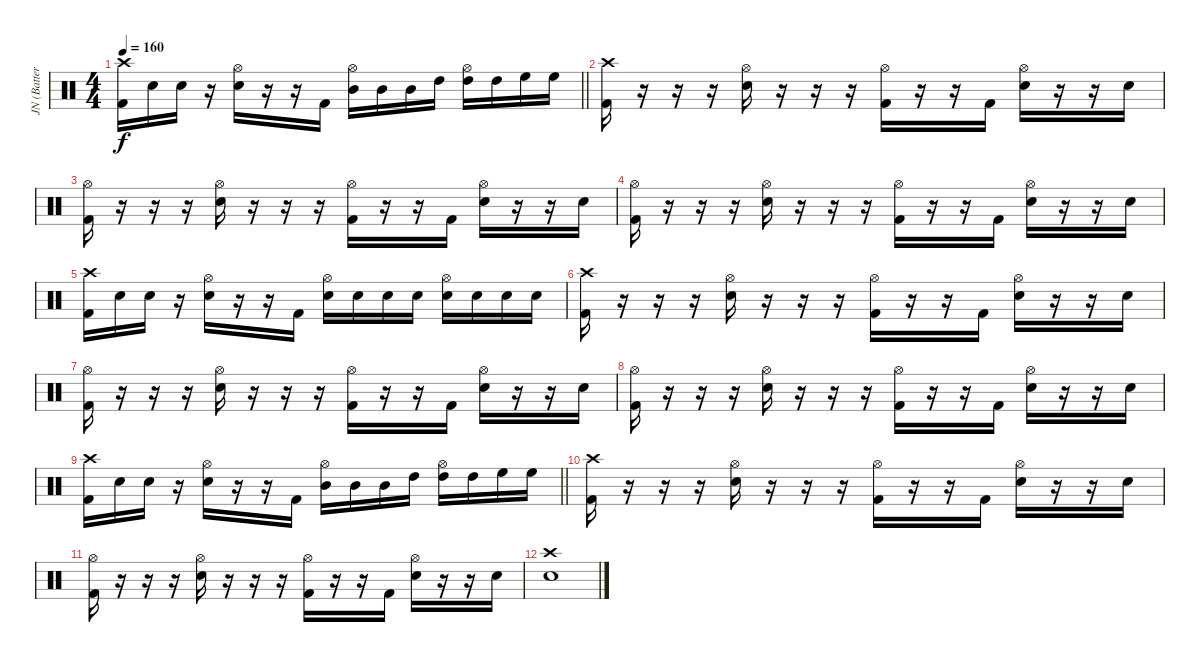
\track ("JN (Batterie)" "JN (Batter") {instrument percussion}
\staff {score}
\articulation defaults
\ts (4 4)
\tempo 160
\clef neutral
\barLineRight lightlight
\ks c
("Crash high (hit)" "Kick (hit) 2").16{dy f} "Electric Snare (hit)".16 "Electric Snare (hit)".16 r.16 ("Hi-Hat (open)" "Electric Snare (hit)").16 r.16 r.16 "Kick (hit) 2".16 ("Hi-Hat (open)" "Mid Tom (hit)").16 "Mid Tom (hit)".16 "Mid Tom (hit)".16 "High Tom (hit)".16 ("Hi-Hat (open)" "High Tom (hit)").16 "High Tom (hit)".16 "High Floor Tom (hit)".16 "High Floor Tom (hit)".16 |
("Crash high (hit)" "Kick (hit) 2").16 r.16 r.16 r.16 ("Hi-Hat (open)" "Electric Snare (hit)").16 r.16 r.16 r.16 ("Hi-Hat (open)" "Kick (hit) 2").16 r.16 r.16 "Kick (hit) 2".16 ("Hi-Hat (open)" "Electric Snare (hit)").16 r.16 r.16 "Electric Snare (hit)".16 |
("Hi-Hat (open)" "Kick (hit) 2").16 r.16 r.16 r.16 ("Hi-Hat (open)" "Electric Snare (hit)").16 r.16 r.16 r.16 ("Hi-Hat (open)" "Kick (hit) 2").16 r.16 r.16 "Kick (hit) 2".16 ("Hi-Hat (open)" "Electric Snare (hit)").16 r.16 r.16 "Electric Snare (hit)".16 |
("Hi-Hat (open)" "Kick (hit) 2").16 r.16 r.16 r.16 ("Hi-Hat (open)" "Electric Snare (hit)").16 r.16 r.16 r.16 ("Hi-Hat (open)" "Kick (hit) 2").16 r.16 r.16 "Kick (hit) 2".16 ("Hi-Hat (open)" "Electric Snare (hit)").16 r.16 r.16 "Electric Snare (hit)".16 |
("Crash high (hit)" "Kick (hit) 2").16 "Electric Snare (hit)".16 "Electric Snare (hit)".16 r.16 ("Hi-Hat (open)" "Electric Snare (hit)").16 r.16 r.16 "Kick (hit) 2".16 ("Hi-Hat (open)" "Electric Snare (hit)").16 "Electric Snare (hit)".16 "Electric Snare (hit)".16 "Electric Snare (hit)".16 ("Hi-Hat (open)" "Snare (hit) 2").16 "Electric Snare (hit)".16 "Electric Snare (hit)".16 "Electric Snare (hit)".16 |
("Crash high (hit)" "Kick (hit) 2").16 r.16 r.16 r.16 ("Hi-Hat (open)" "Electric Snare (hit)").16 r.16 r.16 r.16 ("Hi-Hat (open)" "Kick (hit) 2").16 r.16 r.16 "Kick (hit) 2".16 ("Hi-Hat (open)" "Electric Snare (hit)").16 r.16 r.16 "Electric Snare (hit)".16 |
("Hi-Hat (open)" "Kick (hit) 2").16 r.16 r.16 r.16 ("Hi-Hat (open)" "Electric Snare (hit)").16 r.16 r.16 r.16 ("Hi-Hat (open)" "Kick (hit) 2").16 r.16 r.16 "Kick (hit) 2".16 ("Hi-Hat (open)" "Electric Snare (hit)").16 r.16 r.16 "Electric Snare (hit)".16 |
("Hi-Hat (open)" "Kick (hit) 2").16 r.16 r.16 r.16 ("Hi-Hat (open)" "Electric Snare (hit)").16 r.16 r.16 r.16 ("Hi-Hat (open)" "Kick (hit) 2").16 r.16 r.16 "Kick (hit) 2".16 ("Hi-Hat (open)" "Electric Snare (hit)").16 r.16 r.16 "Electric Snare (hit)".16 |
\barLineRight lightlight
("Crash high (hit)" "Kick (hit) 2").16 "Electric Snare (hit)".16 "Electric Snare (hit)".16 r.16 ("Hi-Hat (open)" "Electric Snare (hit)").16 r.16 r.16 "Kick (hit) 2".16 ("Hi-Hat (open)" "Mid Tom (hit)").16 "Mid Tom (hit)".16 "Mid Tom (hit)".16 "High Tom (hit)".16 ("Hi-Hat (open)" "High Tom (hit)").16 "High Tom (hit)".16 "High Floor Tom (hit)".16 "High Floor Tom (hit)".16 |
("Crash high (hit)" "Kick (hit) 2").16 r.16 r.16 r.16 ("Hi-Hat (open)" "Electric Snare (hit)").16 r.16 r.16 r.16 ("Hi-Hat (open)" "Kick (hit) 2").16 r.16 r.16 "Kick (hit) 2".16 ("Hi-Hat (open)" "Electric Snare (hit)").16 r.16 r.16 "Electric Snare (hit)".16 |
("Hi-Hat (open)" "Kick (hit) 2").16 r.16 r.16 r.16 ("Hi-Hat (open)" "Electric Snare (hit)").16 r.16 r.16 r.16 ("Hi-Hat (open)" "Kick (hit) 2").16 r.16 r.16 "Kick (hit) 2".16 ("Hi-Hat (open)" "Electric Snare (hit)").16 r.16 r.16 "Electric Snare (hit)".16 |
("Crash high (hit)" "Electric Snare (hit)").1
